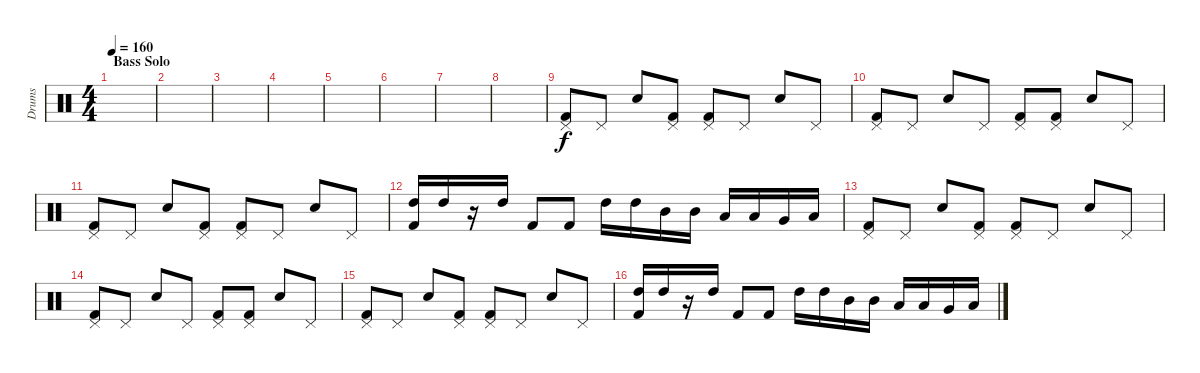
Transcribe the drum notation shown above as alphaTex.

\track ("Drums" "Drums") {instrument percussion}
\staff {score}
\articulation defaults
\ts (4 4)
\section ("" "Bass Solo")
\tempo 160
\clef neutral
\ks c
|
|
|
|
|
|
|
|
("Pedal Hi-Hat (hit)" "Kick (hit) 2").8 "Pedal Hi-Hat (hit)".8 "Electric Snare (hit)".8 ("Pedal Hi-Hat (hit)" "Kick (hit) 2").8 ("Pedal Hi-Hat (hit)" "Kick (hit) 2").8 "Pedal Hi-Hat (hit)".8 "Electric Snare (hit)".8 "Pedal Hi-Hat (hit)".8 |
("Pedal Hi-Hat (hit)" "Kick (hit) 2").8 "Pedal Hi-Hat (hit)".8 "Electric Snare (hit)".8 "Pedal Hi-Hat (hit)".8 ("Pedal Hi-Hat (hit)" "Kick (hit) 2").8 ("Pedal Hi-Hat (hit)" "Kick (hit) 2").8 "Electric Snare (hit)".8 "Pedal Hi-Hat (hit)".8 |
("Pedal Hi-Hat (hit)" "Kick (hit) 2").8 "Pedal Hi-Hat (hit)".8 "Electric Snare (hit)".8 ("Pedal Hi-Hat (hit)" "Kick (hit) 2").8 ("Pedal Hi-Hat (hit)" "Kick (hit) 2").8 "Pedal Hi-Hat (hit)".8 "Electric Snare (hit)".8 "Pedal Hi-Hat (hit)".8 |
("High Tom (hit)" "Kick (hit) 2").16 "High Tom (hit)".16 r.16 "High Tom (hit)".16 "Kick (hit) 2".8 "Kick (hit) 2".8 "High Tom (hit)".16 "High Tom (hit)".16 "Mid Tom (hit)".16 "Mid Tom (hit)".16 "Low Tom (hit)".16 "Low Tom (hit)".16 "Very Low Tom (hit)".16 "Low Floor Tom (hit)".16 |
("Pedal Hi-Hat (hit)" "Kick (hit) 2").8 "Pedal Hi-Hat (hit)".8 "Electric Snare (hit)".8 ("Pedal Hi-Hat (hit)" "Kick (hit) 2").8 ("Pedal Hi-Hat (hit)" "Kick (hit) 2").8 "Pedal Hi-Hat (hit)".8 "Electric Snare (hit)".8 "Pedal Hi-Hat (hit)".8 |
("Pedal Hi-Hat (hit)" "Kick (hit) 2").8 "Pedal Hi-Hat (hit)".8 "Electric Snare (hit)".8 "Pedal Hi-Hat (hit)".8 ("Pedal Hi-Hat (hit)" "Kick (hit) 2").8 ("Pedal Hi-Hat (hit)" "Kick (hit) 2").8 "Electric Snare (hit)".8 "Pedal Hi-Hat (hit)".8 |
("Pedal Hi-Hat (hit)" "Kick (hit) 2").8 "Pedal Hi-Hat (hit)".8 "Electric Snare (hit)".8 ("Pedal Hi-Hat (hit)" "Kick (hit) 2").8 ("Pedal Hi-Hat (hit)" "Kick (hit) 2").8 "Pedal Hi-Hat (hit)".8 "Electric Snare (hit)".8 "Pedal Hi-Hat (hit)".8 |
("High Tom (hit)" "Kick (hit) 2").16 "High Tom (hit)".16 r.16 "High Tom (hit)".16 "Kick (hit) 2".8 "Kick (hit) 2".8 "High Tom (hit)".16 "High Tom (hit)".16 "Mid Tom (hit)".16 "Mid Tom (hit)".16 "Low Tom (hit)".16 "Low Tom (hit)".16 "Very Low Tom (hit)".16 "Low Floor Tom (hit)".16
